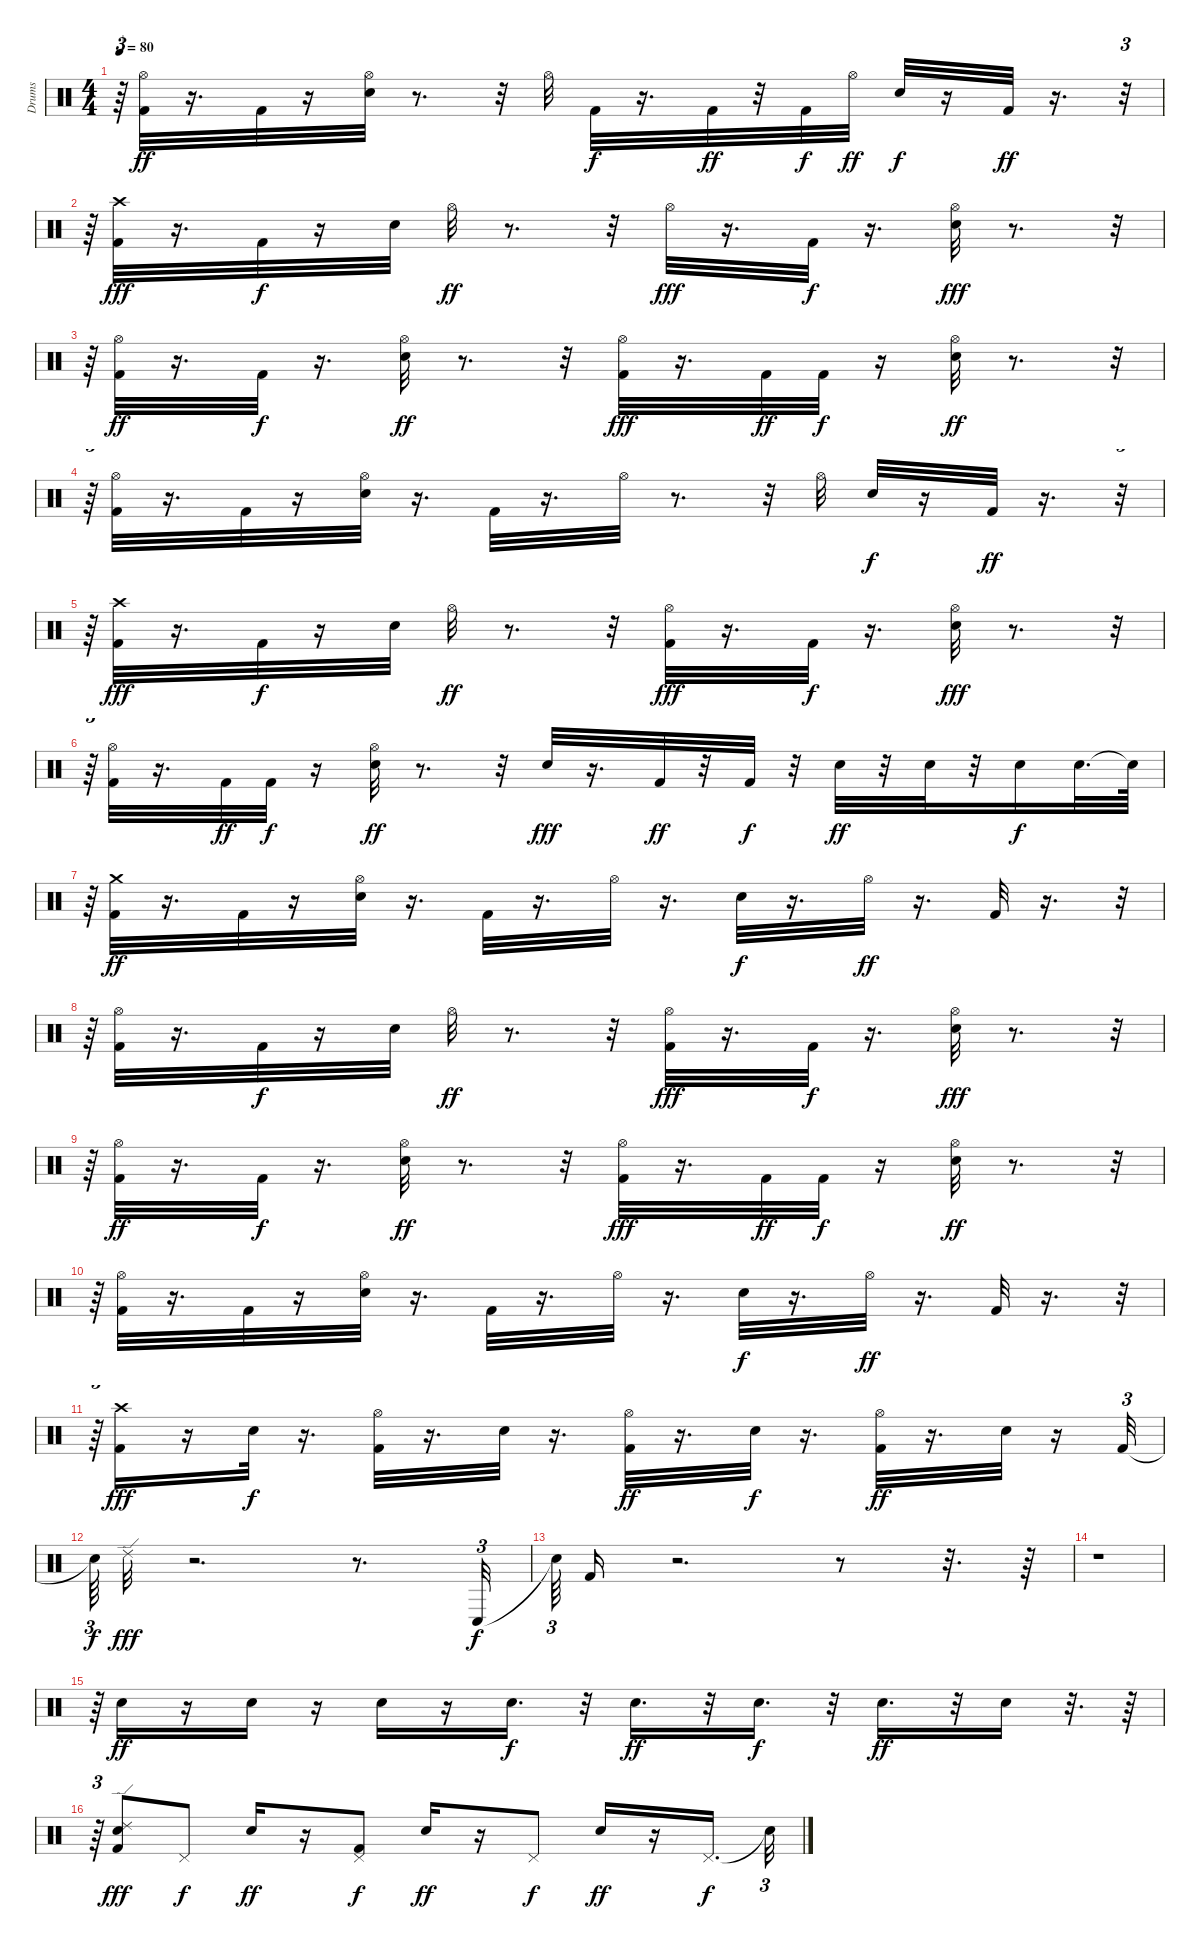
\track ("Drums" "Drums") {instrument percussion}
\staff {score}
\articulation defaults
\ts (4 4)
\tempo 80
\clef neutral
\ks c
r.64{tu (3 2) dy ff} ("Hi-Hat (open)" "Kick (hit) 2").32 r.16{d} "Kick (hit) 2".32 r.16 ("Hi-Hat (open)" "Electric Snare (hit)").32 r.8{d} r.32 "Hi-Hat (open)".32 "Kick (hit) 2".32{dy f} r.16{d} "Kick (hit) 2".32{dy ff} r.32 "Kick (hit) 2".32{dy f} "Hi-Hat (open)".32{dy ff} "Electric Snare (hit)".32{dy f} r.16 "Kick (hit) 2".32{dy ff} r.16{d} r.32{tu (3 2)} |
r.64{tu (3 2)} ("Crash high (hit)" "Kick (hit) 2").32{dy fff} r.16{d} "Kick (hit) 2".32{dy f} r.16 "Electric Snare (hit)".32 "Hi-Hat (open)".32{dy ff} r.8{d} r.32 "Hi-Hat (open)".32{dy fff} r.16{d} "Kick (hit) 2".32{dy f} r.16{d} ("Electric Snare (hit)" "Hi-Hat (open)").32{dy fff} r.8{d} r.32{tu (3 2)} |
r.64{tu (3 2)} ("Hi-Hat (open)" "Kick (hit) 2").32{dy ff} r.16{d} "Kick (hit) 2".32{dy f} r.16{d} ("Electric Snare (hit)" "Hi-Hat (open)").32{dy ff} r.8{d} r.32 ("Kick (hit) 2" "Hi-Hat (open)").32{dy fff} r.16{d} "Kick (hit) 2".32{dy ff} "Kick (hit) 2".32{dy f} r.16 ("Hi-Hat (open)" "Electric Snare (hit)").32{dy ff} r.8{d} r.32{tu (3 2)} |
r.64{tu (3 2)} ("Hi-Hat (open)" "Kick (hit) 2").32 r.16{d} "Kick (hit) 2".32 r.16 ("Hi-Hat (open)" "Electric Snare (hit)").32 r.16{d} "Kick (hit) 2".32 r.16{d} "Hi-Hat (open)".32 r.8{d} r.32 "Hi-Hat (open)".32 "Electric Snare (hit)".32{dy f} r.16 "Kick (hit) 2".32{dy ff} r.16{d} r.32{tu (3 2)} |
r.64{tu (3 2)} ("Crash high (hit)" "Kick (hit) 2").32{dy fff} r.16{d} "Kick (hit) 2".32{dy f} r.16 "Electric Snare (hit)".32 "Hi-Hat (open)".32{dy ff} r.8{d} r.32 ("Kick (hit) 2" "Hi-Hat (open)").32{dy fff} r.16{d} "Kick (hit) 2".32{dy f} r.16{d} ("Electric Snare (hit)" "Hi-Hat (open)").32{dy fff} r.8{d} r.32{tu (3 2)} |
r.64{tu (3 2)} ("Hi-Hat (open)" "Kick (hit) 2").32 r.16{d} "Kick (hit) 2".32{dy ff} "Kick (hit) 2".32{dy f} r.16 ("Electric Snare (hit)" "Hi-Hat (open)").32{dy ff} r.8{d} r.32 "Electric Snare (hit)".32{dy fff} r.16{d} "Kick (hit) 2".32{dy ff} r.32 "Kick (hit) 2".32{dy f} r.32 "Electric Snare (hit)".32{dy ff} r.32 "Electric Snare (hit)".32 r.32 "Electric Snare (hit)".16{dy f} "Electric Snare (hit)".32{d} "Snare (hit)"{t}.64 |
r.64{tu (3 2)} ("Crash medium (hit)" "Kick (hit) 2").32{dy ff} r.16{d} "Kick (hit) 2".32 r.16 ("Hi-Hat (open)" "Electric Snare (hit)").32 r.16{d} "Kick (hit) 2".32 r.16{d} "Hi-Hat (open)".32 r.16{d} "Electric Snare (hit)".32{dy f} r.16{d} "Hi-Hat (open)".32{dy ff} r.16{d} "Kick (hit) 2".32 r.16{d} r.32{tu (3 2)} |
r.64{tu (3 2)} ("Hi-Hat (open)" "Kick (hit) 2").32 r.16{d} "Kick (hit) 2".32{dy f} r.16 "Electric Snare (hit)".32 "Hi-Hat (open)".32{dy ff} r.8{d} r.32 ("Kick (hit) 2" "Hi-Hat (open)").32{dy fff} r.16{d} "Kick (hit) 2".32{dy f} r.16{d} ("Electric Snare (hit)" "Hi-Hat (open)").32{dy fff} r.8{d} r.32{tu (3 2)} |
r.64{tu (3 2)} ("Hi-Hat (open)" "Kick (hit) 2").32{dy ff} r.16{d} "Kick (hit) 2".32{dy f} r.16{d} ("Electric Snare (hit)" "Hi-Hat (open)").32{dy ff} r.8{d} r.32 ("Kick (hit) 2" "Hi-Hat (open)").32{dy fff} r.16{d} "Kick (hit) 2".32{dy ff} "Kick (hit) 2".32{dy f} r.16 ("Hi-Hat (open)" "Electric Snare (hit)").32{dy ff} r.8{d} r.32{tu (3 2)} |
r.64{tu (3 2)} ("Hi-Hat (open)" "Kick (hit) 2").32 r.16{d} "Kick (hit) 2".32 r.16 ("Hi-Hat (open)" "Electric Snare (hit)").32 r.16{d} "Kick (hit) 2".32 r.16{d} "Hi-Hat (open)".32 r.16{d} "Electric Snare (hit)".32{dy f} r.16{d} "Hi-Hat (open)".32{dy ff} r.16{d} "Kick (hit) 2".32 r.16{d} r.32{tu (3 2)} |
r.64{tu (3 2)} ("Crash high (hit)" "Kick (hit) 2").16{dy fff} r.16 "Electric Snare (hit)".32{dy f} r.16{d} ("Hi-Hat (open)" "Kick (hit) 2").32 r.16{d} "Electric Snare (hit)".32 r.16{d} ("Hi-Hat (open)" "Kick (hit) 2").32{dy ff} r.16{d} "Electric Snare (hit)".32{dy f} r.16{d} ("Hi-Hat (open)" "Kick (hit) 2").32{dy ff} r.16{d} "Electric Snare (hit)".32 r.16 "Kick (hit) 2".32{tu (3 2)} |
"Snare (hit)"{t}.64{tu (3 2) dy f} "Ride (edge) 2".32{dy fff} r.2{d} r.8{d} "Conga low (hit)".32{tu (3 2) dy f} |
"Snare (hit)"{t}.64{tu (3 2)} "Kick (hit) 2".16 r.2{d} r.8 r.32{d} r.64 |
r.1 |
r.64{tu (3 2)} "Snare (hit) 2".16{dy ff} r.16 "Electric Snare (hit)".16 r.16 "Snare (hit) 2".16 r.16 "Electric Snare (hit)".16{d dy f} r.32 "Snare (hit) 2".16{d dy ff} r.32 "Electric Snare (hit)".16{d dy f} r.32 "Snare (hit) 2".16{d dy ff} r.32 "Electric Snare (hit)".16 r.32{d} r.64 |
r.64{tu (3 2)} ("Kick (hit) 2" "Electric Snare (hit)" "Ride (edge) 2").8{dy fff} "Pedal Hi-Hat (hit)".8{dy f} "Electric Snare (hit)".16{dy ff} r.16 ("Kick (hit) 2" "Pedal Hi-Hat (hit)").8{dy f} "Electric Snare (hit)".16{dy ff} r.16 "Pedal Hi-Hat (hit)".8{dy f} "Electric Snare (hit)".16{dy ff} r.16 "Pedal Hi-Hat (hit)".16{d dy f} "Snare (hit)"{t}.32{tu (3 2)}
